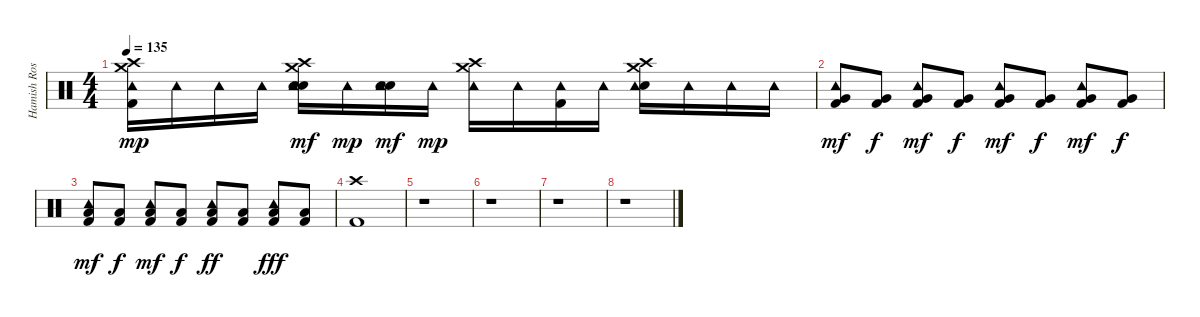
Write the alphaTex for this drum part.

\track ("Hamish Rosser (Drums Track)" "Hamish Ros") {instrument percussion}
\staff {score}
\articulation defaults
\ts (4 4)
\tempo 135
\clef neutral
\ks c
("Crash high (hit)" "Crash medium (hit)" "Tambourine (hit)" "Kick (hit) 2").16{dy mp} "Tambourine (hit)".16 "Tambourine (hit)".16 "Tambourine (hit)".16 ("Crash high (hit)" "Crash medium (hit)" "Electric Snare (hit)" "Tambourine (hit)" "Hand Clap (hit)").16{dy mf} "Tambourine (hit)".16{dy mp} ("Electric Snare (hit)" "Tambourine (hit)" "Hand Clap (hit)").16{dy mf} "Tambourine (hit)".16{dy mp} ("Crash high (hit)" "Crash medium (hit)" "Tambourine (hit)").16 "Tambourine (hit)".16 ("Tambourine (hit)" "Kick (hit) 2").16 "Tambourine (hit)".16 ("Crash high (hit)" "Crash medium (hit)" "Electric Snare (hit)" "Tambourine (hit)").16 "Tambourine (hit)".16 "Tambourine (hit)".16 "Tambourine (hit)".16 |
("Tambourine (hit)" "Very Low Tom (hit)" "Kick (hit) 2").8{dy mf volume 11} ("Very Low Tom (hit)" "Kick (hit) 2").8{dy f} ("Tambourine (hit)" "Very Low Tom (hit)" "Kick (hit) 2").8{dy mf volume 16} ("Very Low Tom (hit)" "Kick (hit) 2").8{dy f} ("Tambourine (hit)" "Very Low Tom (hit)" "Kick (hit) 2").8{dy mf} ("Very Low Tom (hit)" "Kick (hit) 2").8{dy f} ("Tambourine (hit)" "Very Low Tom (hit)" "Kick (hit) 2").8{dy mf} ("Very Low Tom (hit)" "Kick (hit) 2").8{dy f} |
("Tambourine (hit)" "Low Tom (hit)" "Kick (hit) 2").8{dy mf volume 11} ("Low Tom (hit)" "Kick (hit) 2").8{dy f} ("Tambourine (hit)" "Low Tom (hit)" "Kick (hit) 2").8{dy mf volume 16} ("Low Tom (hit)" "Kick (hit) 2").8{dy f} ("Tambourine (hit)" "Low Tom (hit)" "Kick (hit) 2").8{dy ff} ("Low Tom (hit)" "Kick (hit) 2").8 ("Tambourine (hit)" "Low Tom (hit)" "Kick (hit) 2").8{dy fff} ("Low Tom (hit)" "Kick (hit) 2").8 |
("Crash high (hit)" "Kick (hit) 2").1 |
r.1 |
r.1 |
r.1 |
r.1
